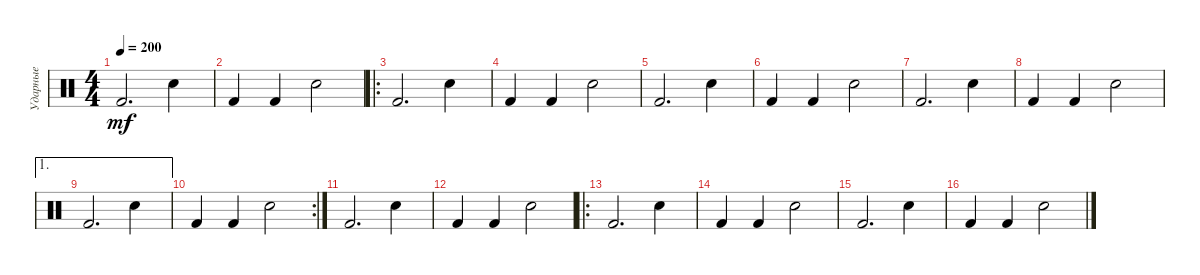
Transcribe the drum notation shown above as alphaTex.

\track ("Ударные" "Ударные") {instrument percussion}
\staff {score}
\articulation defaults
\ts (4 4)
\tempo 200
\clef neutral
\ks c "Kick (hit) 2".2{d dy mf} "Snare (hit) 2".4
|
"Kick (hit) 2".4 "Kick (hit) 2".4 "Snare (hit) 2".2 |
\ro "Kick (hit) 2".2{d} "Snare (hit) 2".4
|
"Kick (hit) 2".4 "Kick (hit) 2".4 "Snare (hit) 2".2 |
"Kick (hit) 2".2{d} "Snare (hit) 2".4 |
"Kick (hit) 2".4 "Kick (hit) 2".4 "Snare (hit) 2".2 |
"Kick (hit) 2".2{d} "Snare (hit) 2".4 |
"Kick (hit) 2".4 "Kick (hit) 2".4 "Snare (hit) 2".2 |
\ae 1 "Kick (hit) 2".2{d} "Snare (hit) 2".4
|
\rc 2 "Kick (hit) 2".4 "Kick (hit) 2".4 "Snare (hit) 2".2
|
"Kick (hit) 2".2{d} "Snare (hit) 2".4 |
"Kick (hit) 2".4 "Kick (hit) 2".4 "Snare (hit) 2".2 |
\ro "Kick (hit) 2".2{d} "Snare (hit) 2".4
|
"Kick (hit) 2".4 "Kick (hit) 2".4 "Snare (hit) 2".2 |
"Kick (hit) 2".2{d} "Snare (hit) 2".4 |
"Kick (hit) 2".4 "Kick (hit) 2".4 "Snare (hit) 2".2
